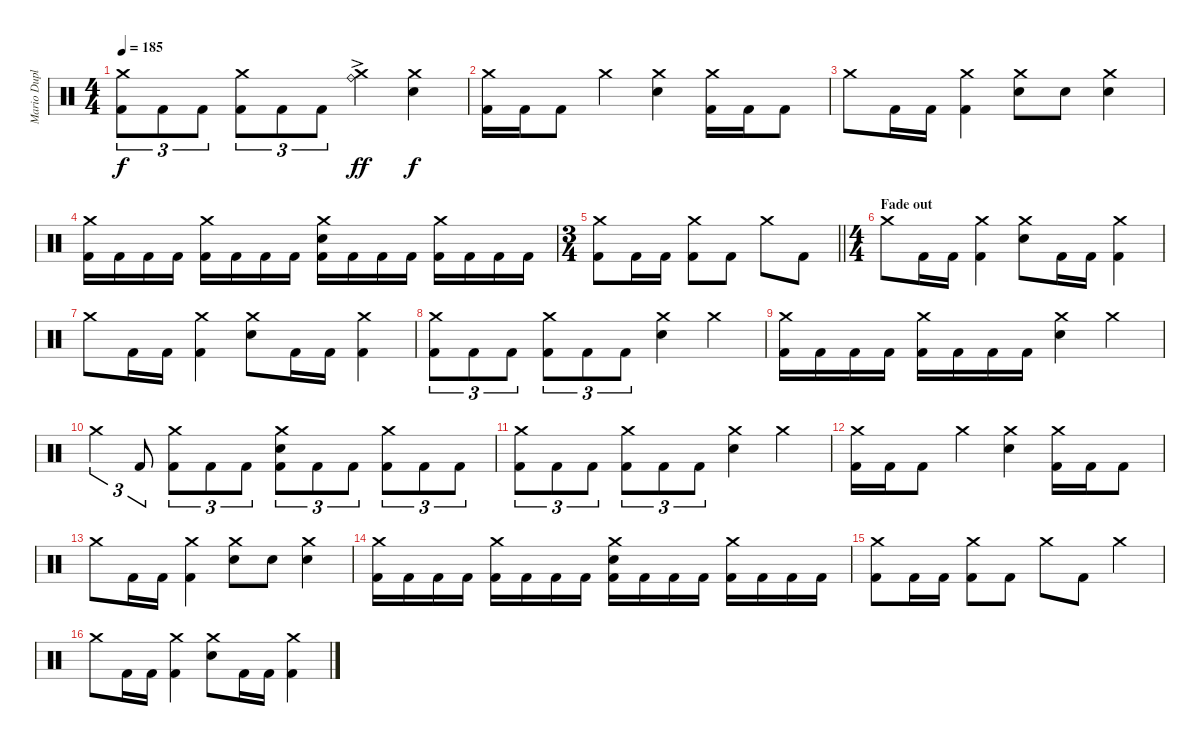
\track ("Mario Duplantier" "Mario Dupl") {instrument percussion}
\staff {score}
\articulation defaults
\ts (4 4)
\tempo 185
\clef neutral
\ks c
("Crash medium (hit)" "Kick (hit) 2").8{tu (3 2) dy f} "Kick (hit) 2".8{tu (3 2)} "Kick (hit) 2".8{tu (3 2)} ("Crash medium (hit)" "Kick (hit) 2").8{tu (3 2)} "Kick (hit) 2".8{tu (3 2)} "Kick (hit) 2".8{tu (3 2)} ("Crash medium (hit)" "Ride (bell)"{ac}).4{dy ff} ("Crash medium (hit)" "Electric Snare (hit)").4{dy f} |
("Crash medium (hit)" "Kick (hit) 2").16 "Kick (hit) 2".16 "Kick (hit) 2".8 "Crash medium (hit)".4 ("Crash medium (hit)" "Electric Snare (hit)").4 ("Crash medium (hit)" "Kick (hit) 2").16 "Kick (hit) 2".16 "Kick (hit) 2".8 |
"Crash medium (hit)".8 "Kick (hit) 2".16 "Kick (hit) 2".16 ("Crash medium (hit)" "Kick (hit) 2").4 ("Crash medium (hit)" "Electric Snare (hit)").8 "Electric Snare (hit)".8 ("Crash medium (hit)" "Electric Snare (hit)").4 |
("Crash medium (hit)" "Kick (hit) 2").16 "Kick (hit) 2".16 "Kick (hit) 2".16 "Kick (hit) 2".16 ("Crash medium (hit)" "Kick (hit) 2").16 "Kick (hit) 2".16 "Kick (hit) 2".16 "Kick (hit) 2".16 ("Crash medium (hit)" "Electric Snare (hit)" "Kick (hit) 2").16 "Kick (hit) 2".16 "Kick (hit) 2".16 "Kick (hit) 2".16 ("Crash medium (hit)" "Kick (hit) 2").16 "Kick (hit) 2".16 "Kick (hit) 2".16 "Kick (hit) 2".16 |
\ts (3 4)
\barLineRight lightlight
("Crash medium (hit)" "Kick (hit) 2").8 "Kick (hit) 2".16 "Kick (hit) 2".16 ("Crash medium (hit)" "Kick (hit) 2").8 "Kick (hit) 2".8 "Crash medium (hit)".8 "Kick (hit) 2".8 |
\ts (4 4)
\section ("" "Fade out")
"Crash medium (hit)".8 "Kick (hit) 2".16 "Kick (hit) 2".16 ("Crash medium (hit)" "Kick (hit) 2").4 ("Crash medium (hit)" "Electric Snare (hit)").8 "Kick (hit) 2".16 "Kick (hit) 2".16 ("Crash medium (hit)" "Kick (hit) 2").4 |
"Crash medium (hit)".8 "Kick (hit) 2".16 "Kick (hit) 2".16 ("Crash medium (hit)" "Kick (hit) 2").4 ("Crash medium (hit)" "Electric Snare (hit)").8 "Kick (hit) 2".16 "Kick (hit) 2".16 ("Crash medium (hit)" "Kick (hit) 2").4 |
("Crash medium (hit)" "Kick (hit) 2").8{tu (3 2)} "Kick (hit) 2".8{tu (3 2)} "Kick (hit) 2".8{tu (3 2)} ("Crash medium (hit)" "Kick (hit) 2").8{tu (3 2)} "Kick (hit) 2".8{tu (3 2)} "Kick (hit) 2".8{tu (3 2)} ("Crash medium (hit)" "Electric Snare (hit)").4 "Crash medium (hit)".4 |
("Crash medium (hit)" "Kick (hit) 2").16 "Kick (hit) 2".16 "Kick (hit) 2".16 "Kick (hit) 2".16 ("Crash medium (hit)" "Kick (hit) 2").16 "Kick (hit) 2".16 "Kick (hit) 2".16 "Kick (hit) 2".16 ("Crash medium (hit)" "Electric Snare (hit)").4 "Crash medium (hit)".4 |
"Crash medium (hit)".4{tu (3 2)} "Kick (hit) 2".8{tu (3 2)} ("Crash medium (hit)" "Kick (hit) 2").8{tu (3 2)} "Kick (hit) 2".8{tu (3 2)} "Kick (hit) 2".8{tu (3 2)} ("Crash medium (hit)" "Electric Snare (hit)" "Kick (hit) 2").8{tu (3 2)} "Kick (hit) 2".8{tu (3 2)} "Kick (hit) 2".8{tu (3 2)} ("Crash medium (hit)" "Kick (hit) 2").8{tu (3 2)} "Kick (hit) 2".8{tu (3 2)} "Kick (hit) 2".8{tu (3 2)} |
("Crash medium (hit)" "Kick (hit) 2").8{tu (3 2)} "Kick (hit) 2".8{tu (3 2)} "Kick (hit) 2".8{tu (3 2)} ("Crash medium (hit)" "Kick (hit) 2").8{tu (3 2)} "Kick (hit) 2".8{tu (3 2)} "Kick (hit) 2".8{tu (3 2)} ("Crash medium (hit)" "Electric Snare (hit)").4 "Crash medium (hit)".4 |
("Crash medium (hit)" "Kick (hit) 2").16 "Kick (hit) 2".16 "Kick (hit) 2".8 "Crash medium (hit)".4 ("Crash medium (hit)" "Electric Snare (hit)").4 ("Crash medium (hit)" "Kick (hit) 2").16 "Kick (hit) 2".16 "Kick (hit) 2".8 |
"Crash medium (hit)".8 "Kick (hit) 2".16 "Kick (hit) 2".16 ("Crash medium (hit)" "Kick (hit) 2").4 ("Crash medium (hit)" "Electric Snare (hit)").8 "Electric Snare (hit)".8 ("Crash medium (hit)" "Electric Snare (hit)").4 |
("Crash medium (hit)" "Kick (hit) 2").16 "Kick (hit) 2".16 "Kick (hit) 2".16 "Kick (hit) 2".16 ("Crash medium (hit)" "Kick (hit) 2").16 "Kick (hit) 2".16 "Kick (hit) 2".16 "Kick (hit) 2".16 ("Crash medium (hit)" "Electric Snare (hit)" "Kick (hit) 2").16 "Kick (hit) 2".16 "Kick (hit) 2".16 "Kick (hit) 2".16 ("Crash medium (hit)" "Kick (hit) 2").16 "Kick (hit) 2".16 "Kick (hit) 2".16 "Kick (hit) 2".16 |
("Crash medium (hit)" "Kick (hit) 2").8 "Kick (hit) 2".16 "Kick (hit) 2".16 ("Crash medium (hit)" "Kick (hit) 2").8 "Kick (hit) 2".8 "Crash medium (hit)".8 "Kick (hit) 2".8 "Crash medium (hit)".4 |
"Crash medium (hit)".8 "Kick (hit) 2".16 "Kick (hit) 2".16 ("Crash medium (hit)" "Kick (hit) 2").4 ("Crash medium (hit)" "Electric Snare (hit)").8 "Kick (hit) 2".16 "Kick (hit) 2".16 ("Crash medium (hit)" "Kick (hit) 2").4
